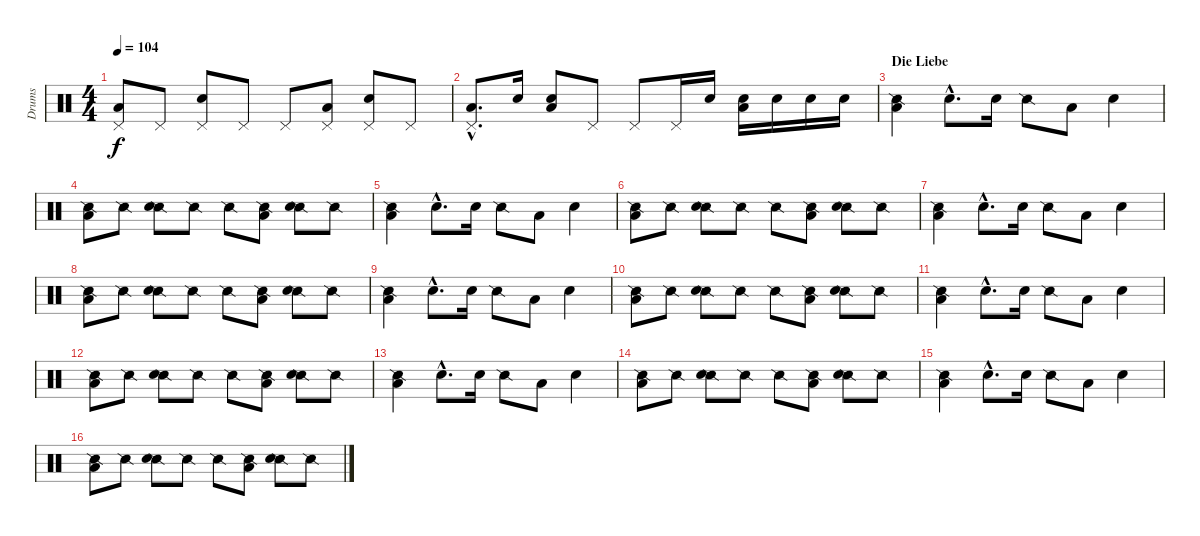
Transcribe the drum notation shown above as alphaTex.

\track ("Drums" "Drums") {instrument percussion}
\staff {score}
\articulation defaults
\ts (4 4)
\tempo 104
\clef neutral
\ks c
("Pedal Hi-Hat (hit)" "Low Floor Tom (hit)").8{dy f} "Pedal Hi-Hat (hit)".8 ("Pedal Hi-Hat (hit)" "Snare (hit) 2").8 "Pedal Hi-Hat (hit)".8 "Pedal Hi-Hat (hit)".8 ("Pedal Hi-Hat (hit)" "Low Floor Tom (hit)").8 ("Pedal Hi-Hat (hit)" "Snare (hit) 2").8 "Pedal Hi-Hat (hit)".8 |
("Pedal Hi-Hat (hit)"{hac} "Low Floor Tom (hit)"{hac}).8{d} "Snare (hit) 2".16 ("Snare (hit) 2" "Low Floor Tom (hit)").8 "Pedal Hi-Hat (hit)".8 "Pedal Hi-Hat (hit)".8 "Pedal Hi-Hat (hit)".16 "Snare (hit) 2".16 ("Snare (hit) 2" "Low Floor Tom (hit)").16 "Snare (hit) 2".16 "Snare (hit) 2".16 "Snare (hit) 2".16 |
\section ("" "Die Liebe")
("Snare (side stick) 2" "Low Floor Tom (hit)").4 "Snare (hit) 2"{hac}.8{d} "Snare (hit) 2".16 "Snare (side stick) 2".8 "Low Floor Tom (hit)".8 "Snare (hit) 2".4 |
("Snare (side stick) 2" "Low Floor Tom (hit)").8 "Snare (side stick) 2".8 ("Snare (side stick) 2" "Snare (hit) 2").8 "Snare (side stick) 2".8 "Snare (side stick) 2".8 ("Snare (side stick) 2" "Low Floor Tom (hit)").8 ("Snare (side stick) 2" "Snare (hit) 2").8 "Snare (side stick) 2".8 |
("Snare (side stick) 2" "Low Floor Tom (hit)").4 "Snare (hit) 2"{hac}.8{d} "Snare (hit) 2".16 "Snare (side stick) 2".8 "Low Floor Tom (hit)".8 "Snare (hit) 2".4 |
("Snare (side stick) 2" "Low Floor Tom (hit)").8 "Snare (side stick) 2".8 ("Snare (side stick) 2" "Snare (hit) 2").8 "Snare (side stick) 2".8 "Snare (side stick) 2".8 ("Snare (side stick) 2" "Low Floor Tom (hit)").8 ("Snare (side stick) 2" "Snare (hit) 2").8 "Snare (side stick) 2".8 |
("Snare (side stick) 2" "Low Floor Tom (hit)").4 "Snare (hit) 2"{hac}.8{d} "Snare (hit) 2".16 "Snare (side stick) 2".8 "Low Floor Tom (hit)".8 "Snare (hit) 2".4 |
("Snare (side stick) 2" "Low Floor Tom (hit)").8 "Snare (side stick) 2".8 ("Snare (side stick) 2" "Snare (hit) 2").8 "Snare (side stick) 2".8 "Snare (side stick) 2".8 ("Snare (side stick) 2" "Low Floor Tom (hit)").8 ("Snare (side stick) 2" "Snare (hit) 2").8 "Snare (side stick) 2".8 |
("Snare (side stick) 2" "Low Floor Tom (hit)").4 "Snare (hit) 2"{hac}.8{d} "Snare (hit) 2".16 "Snare (side stick) 2".8 "Low Floor Tom (hit)".8 "Snare (hit) 2".4 |
("Snare (side stick) 2" "Low Floor Tom (hit)").8 "Snare (side stick) 2".8 ("Snare (side stick) 2" "Snare (hit) 2").8 "Snare (side stick) 2".8 "Snare (side stick) 2".8 ("Snare (side stick) 2" "Low Floor Tom (hit)").8 ("Snare (side stick) 2" "Snare (hit) 2").8 "Snare (side stick) 2".8 |
("Snare (side stick) 2" "Low Floor Tom (hit)").4 "Snare (hit) 2"{hac}.8{d} "Snare (hit) 2".16 "Snare (side stick) 2".8 "Low Floor Tom (hit)".8 "Snare (hit) 2".4 |
("Snare (side stick) 2" "Low Floor Tom (hit)").8 "Snare (side stick) 2".8 ("Snare (side stick) 2" "Snare (hit) 2").8 "Snare (side stick) 2".8 "Snare (side stick) 2".8 ("Snare (side stick) 2" "Low Floor Tom (hit)").8 ("Snare (side stick) 2" "Snare (hit) 2").8 "Snare (side stick) 2".8 |
("Snare (side stick) 2" "Low Floor Tom (hit)").4 "Snare (hit) 2"{hac}.8{d} "Snare (hit) 2".16 "Snare (side stick) 2".8 "Low Floor Tom (hit)".8 "Snare (hit) 2".4 |
("Snare (side stick) 2" "Low Floor Tom (hit)").8 "Snare (side stick) 2".8 ("Snare (side stick) 2" "Snare (hit) 2").8 "Snare (side stick) 2".8 "Snare (side stick) 2".8 ("Snare (side stick) 2" "Low Floor Tom (hit)").8 ("Snare (side stick) 2" "Snare (hit) 2").8 "Snare (side stick) 2".8 |
("Snare (side stick) 2" "Low Floor Tom (hit)").4 "Snare (hit) 2"{hac}.8{d} "Snare (hit) 2".16 "Snare (side stick) 2".8 "Low Floor Tom (hit)".8 "Snare (hit) 2".4 |
("Snare (side stick) 2" "Low Floor Tom (hit)").8 "Snare (side stick) 2".8 ("Snare (side stick) 2" "Snare (hit) 2").8 "Snare (side stick) 2".8 "Snare (side stick) 2".8 ("Snare (side stick) 2" "Low Floor Tom (hit)").8 ("Snare (side stick) 2" "Snare (hit) 2").8 "Snare (side stick) 2".8
